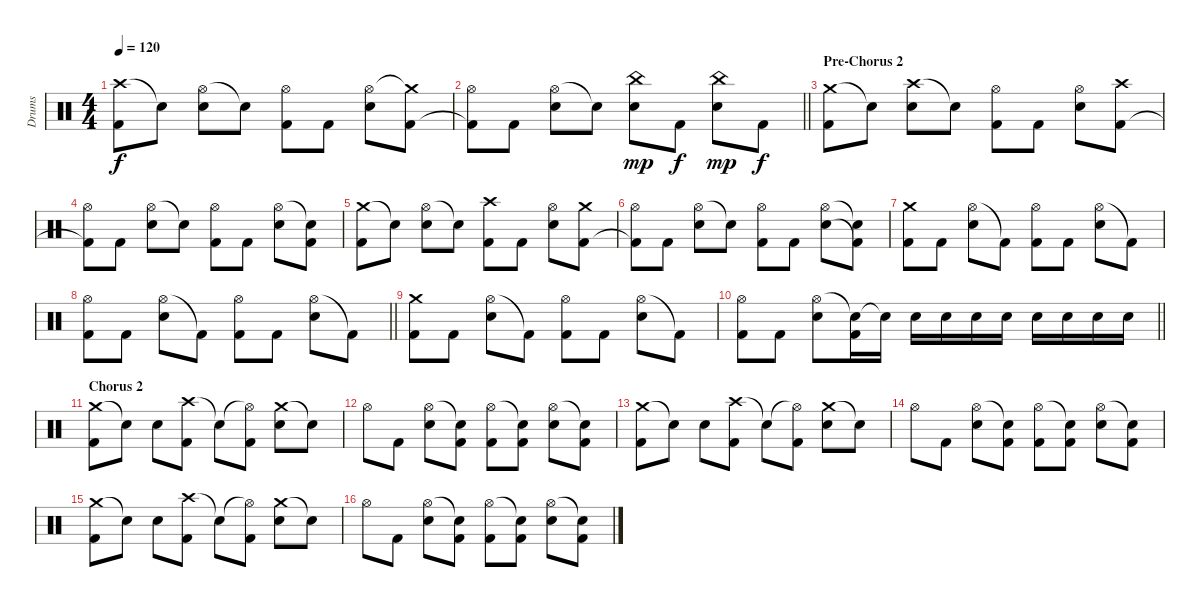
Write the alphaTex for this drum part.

\track ("Drums" "Drums") {instrument percussion}
\staff {score}
\articulation defaults
\ts (4 4)
\tempo 120
\clef neutral
\ks c
("Crash high (hit)" "Kick (hit) 2").8{dy f} "Snare (hit)"{t}.8 ("Hi-Hat (open)" "Snare (hit) 2").8 "Snare (hit)"{t}.8 ("Hi-Hat (open)" "Kick (hit) 2").8 "Kick (hit) 2".8 ("Hi-Hat (open)" "Snare (hit) 2").8 ("Crash medium (hit)"{t} "Kick (hit) 2").8 |
\barLineRight lightlight
("Hi-Hat (open)" "Kick (hit) 2"{t}).8 "Kick (hit) 2".8 ("Hi-Hat (open)" "Snare (hit) 2").8 "Snare (hit)"{t}.8 ("China (hit)" "Snare (hit) 2").8{dy mp} "Kick (hit) 2".8{dy f} ("China (hit)" "Snare (hit) 2").8{dy mp} "Kick (hit) 2".8{dy f} |
\section ("" "Pre-Chorus 2")
("Crash medium (hit)" "Kick (hit) 2").8 "Snare (hit)"{t}.8 ("Crash high (hit)" "Snare (hit) 2").8 "Snare (hit)"{t}.8 ("Hi-Hat (open)" "Kick (hit) 2").8 "Kick (hit) 2".8 ("Hi-Hat (open)" "Snare (hit) 2").8 ("Crash high (hit)" "Kick (hit) 2").8 |
("Hi-Hat (open)" "Kick (hit) 2"{t}).8 "Kick (hit) 2".8 ("Hi-Hat (open)" "Snare (hit) 2").8 "Snare (hit)"{t}.8 ("Hi-Hat (open)" "Kick (hit) 2").8 "Kick (hit) 2".8 ("Hi-Hat (open)" "Snare (hit) 2").8 ("Snare (hit)"{t} "Kick (hit) 2").8 |
("Crash medium (hit)" "Kick (hit) 2").8 "Snare (hit)"{t}.8 ("Hi-Hat (open)" "Snare (hit) 2").8 "Snare (hit)"{t}.8 ("Crash high (hit)" "Kick (hit) 2").8 "Kick (hit) 2".8 ("Hi-Hat (open)" "Snare (hit) 2").8 ("Crash medium (hit)" "Kick (hit) 2").8 |
("Hi-Hat (open)" "Kick (hit) 2"{t}).8 "Kick (hit) 2".8 ("Hi-Hat (open)" "Snare (hit) 2").8 "Snare (hit)"{t}.8 ("Hi-Hat (open)" "Kick (hit) 2").8 "Kick (hit) 2".8 ("Hi-Hat (open)" "Snare (hit) 2").8 ("Snare (hit)"{t} "Kick (hit) 2"{t}).8 |
("Crash medium (hit)" "Kick (hit) 2").8 "Kick (hit) 2".8 ("Hi-Hat (open)" "Snare (hit) 2").8 "Kick (hit) 2"{t}.8 ("Hi-Hat (open)" "Kick (hit) 2").8 "Kick (hit) 2".8 ("Hi-Hat (open)" "Snare (hit) 2").8 "Kick (hit) 2"{t}.8 |
\barLineRight lightlight
("Hi-Hat (open)" "Kick (hit) 2").8 "Kick (hit) 2".8 ("Hi-Hat (open)" "Snare (hit) 2").8 "Kick (hit) 2"{t}.8 ("Hi-Hat (open)" "Kick (hit) 2").8 "Kick (hit) 2".8 ("Hi-Hat (open)" "Snare (hit) 2").8 "Kick (hit) 2"{t}.8 |
("Crash medium (hit)" "Kick (hit) 2").8 "Kick (hit) 2".8 ("Hi-Hat (open)" "Snare (hit) 2").8 "Kick (hit) 2"{t}.8 ("Hi-Hat (open)" "Kick (hit) 2").8 "Kick (hit) 2".8 ("Hi-Hat (open)" "Snare (hit) 2").8 "Kick (hit) 2"{t}.8 |
\barLineRight lightlight
("Hi-Hat (open)" "Kick (hit) 2").8 "Kick (hit) 2".8 ("Hi-Hat (open)" "Snare (hit) 2").8 ("Snare (hit) 2"{t} "Kick (hit) 2").16 "Snare (hit) 2"{t}.16 "Snare (hit) 2".16 "Snare (hit) 2".16 "Snare (hit) 2".16 "Snare (hit) 2".16 "Snare (hit) 2".16 "Snare (hit) 2".16 "Snare (hit) 2".16 "Snare (hit) 2".16 |
\section ("" "Chorus 2")
("Crash medium (hit)" "Kick (hit) 2").8 "Snare (hit)"{t}.8 "Snare (hit) 2".8 ("Crash high (hit)" "Kick (hit) 2").8 "Snare (hit)"{t}.8 ("Hi-Hat (open)"{t} "Kick (hit) 2").8 ("Crash medium (hit)" "Snare (hit) 2").8 "Snare (hit)"{t}.8 |
"Hi-Hat (open)".8 "Kick (hit) 2".8 ("Hi-Hat (open)" "Snare (hit) 2").8 ("Snare (hit)"{t} "Kick (hit) 2").8 ("Hi-Hat (open)" "Kick (hit) 2").8 ("Snare (hit)"{t} "Kick (hit) 2").8 ("Hi-Hat (open)" "Snare (hit) 2").8 ("Snare (hit)"{t} "Kick (hit) 2").8 |
("Crash medium (hit)" "Kick (hit) 2").8 "Snare (hit)"{t}.8 "Snare (hit) 2".8 ("Crash high (hit)" "Kick (hit) 2").8 "Snare (hit)"{t}.8 ("Hi-Hat (open)"{t} "Kick (hit) 2").8 ("Crash medium (hit)" "Snare (hit) 2").8 "Snare (hit)"{t}.8 |
"Hi-Hat (open)".8 "Kick (hit) 2".8 ("Hi-Hat (open)" "Snare (hit) 2").8 ("Snare (hit)"{t} "Kick (hit) 2").8 ("Hi-Hat (open)" "Kick (hit) 2").8 ("Snare (hit)"{t} "Kick (hit) 2").8 ("Hi-Hat (open)" "Snare (hit) 2").8 ("Snare (hit)"{t} "Kick (hit) 2").8 |
("Crash medium (hit)" "Kick (hit) 2").8 "Snare (hit)"{t}.8 "Snare (hit) 2".8 ("Crash high (hit)" "Kick (hit) 2").8 "Snare (hit)"{t}.8 ("Hi-Hat (open)"{t} "Kick (hit) 2").8 ("Crash medium (hit)" "Snare (hit) 2").8 "Snare (hit)"{t}.8 |
"Hi-Hat (open)".8 "Kick (hit) 2".8 ("Hi-Hat (open)" "Snare (hit) 2").8 ("Snare (hit)"{t} "Kick (hit) 2").8 ("Hi-Hat (open)" "Kick (hit) 2").8 ("Snare (hit)"{t} "Kick (hit) 2").8 ("Hi-Hat (open)" "Snare (hit) 2").8 ("Snare (hit)"{t} "Kick (hit) 2").8
